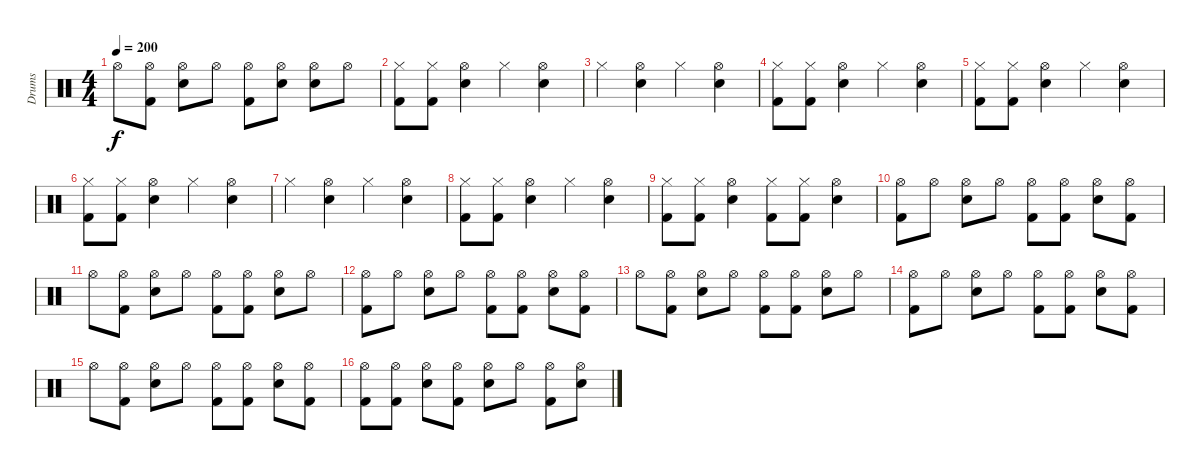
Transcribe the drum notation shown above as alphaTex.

\track ("Drums" "Drums") {instrument percussion}
\staff {score}
\articulation defaults
\ts (4 4)
\tempo 200
\clef neutral
\ks c "Hi-Hat (open)".8{dy f}
("Hi-Hat (open)" "Kick (hit) 2").8 ("Hi-Hat (open)" "Electric Snare (hit)").8 "Hi-Hat (open)".8 ("Hi-Hat (open)" "Kick (hit) 2").8 ("Hi-Hat (open)" "Electric Snare (hit)").8 ("Hi-Hat (open)" "Electric Snare (hit)").8 "Hi-Hat (open)".8 |
("Hi-Hat (closed)" "Kick (hit) 2").8 ("Hi-Hat (closed)" "Kick (hit) 2").8 ("Hi-Hat (open)" "Electric Snare (hit)").4 "Hi-Hat (closed)".4 ("Hi-Hat (open)" "Electric Snare (hit)").4 |
"Hi-Hat (closed)".4 ("Hi-Hat (open)" "Electric Snare (hit)").4 "Hi-Hat (closed)".4 ("Hi-Hat (open)" "Electric Snare (hit)").4 |
("Hi-Hat (closed)" "Kick (hit) 2").8 ("Hi-Hat (closed)" "Kick (hit) 2").8 ("Hi-Hat (open)" "Electric Snare (hit)").4 "Hi-Hat (closed)".4 ("Hi-Hat (open)" "Electric Snare (hit)").4 |
("Hi-Hat (closed)" "Kick (hit) 2").8 ("Hi-Hat (closed)" "Kick (hit) 2").8 ("Hi-Hat (open)" "Electric Snare (hit)").4 "Hi-Hat (closed)".4 ("Hi-Hat (open)" "Electric Snare (hit)").4 |
("Hi-Hat (closed)" "Kick (hit) 2").8 ("Hi-Hat (closed)" "Kick (hit) 2").8 ("Hi-Hat (open)" "Electric Snare (hit)").4 "Hi-Hat (closed)".4 ("Hi-Hat (open)" "Electric Snare (hit)").4 |
"Hi-Hat (closed)".4 ("Hi-Hat (open)" "Electric Snare (hit)").4 "Hi-Hat (closed)".4 ("Hi-Hat (open)" "Electric Snare (hit)").4 |
("Hi-Hat (closed)" "Kick (hit) 2").8 ("Hi-Hat (closed)" "Kick (hit) 2").8 ("Hi-Hat (open)" "Electric Snare (hit)").4 "Hi-Hat (closed)".4 ("Hi-Hat (open)" "Electric Snare (hit)").4 |
("Hi-Hat (closed)" "Kick (hit) 2").8 ("Hi-Hat (closed)" "Kick (hit) 2").8 ("Hi-Hat (open)" "Electric Snare (hit)").4 ("Hi-Hat (closed)" "Kick (hit) 2").8 ("Hi-Hat (closed)" "Kick (hit) 2").8 ("Hi-Hat (open)" "Electric Snare (hit)").4 |
("Hi-Hat (open)" "Kick (hit) 2").8 "Hi-Hat (open)".8 ("Hi-Hat (open)" "Electric Snare (hit)").8 "Hi-Hat (open)".8 ("Hi-Hat (open)" "Kick (hit) 2").8 ("Hi-Hat (open)" "Kick (hit) 2").8 ("Hi-Hat (open)" "Electric Snare (hit)").8 ("Hi-Hat (open)" "Kick (hit) 2").8 |
"Hi-Hat (open)".8 ("Hi-Hat (open)" "Kick (hit) 2").8 ("Hi-Hat (open)" "Electric Snare (hit)").8 "Hi-Hat (open)".8 ("Hi-Hat (open)" "Kick (hit) 2").8 ("Hi-Hat (open)" "Kick (hit) 2").8 ("Hi-Hat (open)" "Electric Snare (hit)").8 "Hi-Hat (open)".8 |
("Hi-Hat (open)" "Kick (hit) 2").8 "Hi-Hat (open)".8 ("Hi-Hat (open)" "Electric Snare (hit)").8 "Hi-Hat (open)".8 ("Hi-Hat (open)" "Kick (hit) 2").8 ("Hi-Hat (open)" "Kick (hit) 2").8 ("Hi-Hat (open)" "Electric Snare (hit)").8 ("Hi-Hat (open)" "Kick (hit) 2").8 |
"Hi-Hat (open)".8 ("Hi-Hat (open)" "Kick (hit) 2").8 ("Hi-Hat (open)" "Electric Snare (hit)").8 "Hi-Hat (open)".8 ("Hi-Hat (open)" "Kick (hit) 2").8 ("Hi-Hat (open)" "Kick (hit) 2").8 ("Hi-Hat (open)" "Electric Snare (hit)").8 "Hi-Hat (open)".8 |
("Hi-Hat (open)" "Kick (hit) 2").8 "Hi-Hat (open)".8 ("Hi-Hat (open)" "Electric Snare (hit)").8 "Hi-Hat (open)".8 ("Hi-Hat (open)" "Kick (hit) 2").8 ("Hi-Hat (open)" "Kick (hit) 2").8 ("Hi-Hat (open)" "Electric Snare (hit)").8 ("Hi-Hat (open)" "Kick (hit) 2").8 |
"Hi-Hat (open)".8 ("Hi-Hat (open)" "Kick (hit) 2").8 ("Hi-Hat (open)" "Electric Snare (hit)").8 "Hi-Hat (open)".8 ("Hi-Hat (open)" "Kick (hit) 2").8 ("Hi-Hat (open)" "Kick (hit) 2").8 ("Hi-Hat (open)" "Electric Snare (hit)").8 ("Hi-Hat (open)" "Kick (hit) 2").8 |
("Hi-Hat (open)" "Kick (hit) 2").8 ("Hi-Hat (open)" "Kick (hit) 2").8 ("Hi-Hat (open)" "Electric Snare (hit)").8 ("Hi-Hat (open)" "Kick (hit) 2").8 ("Hi-Hat (open)" "Electric Snare (hit)").8 "Hi-Hat (open)".8 ("Hi-Hat (open)" "Kick (hit) 2").8 ("Hi-Hat (open)" "Electric Snare (hit)").8
